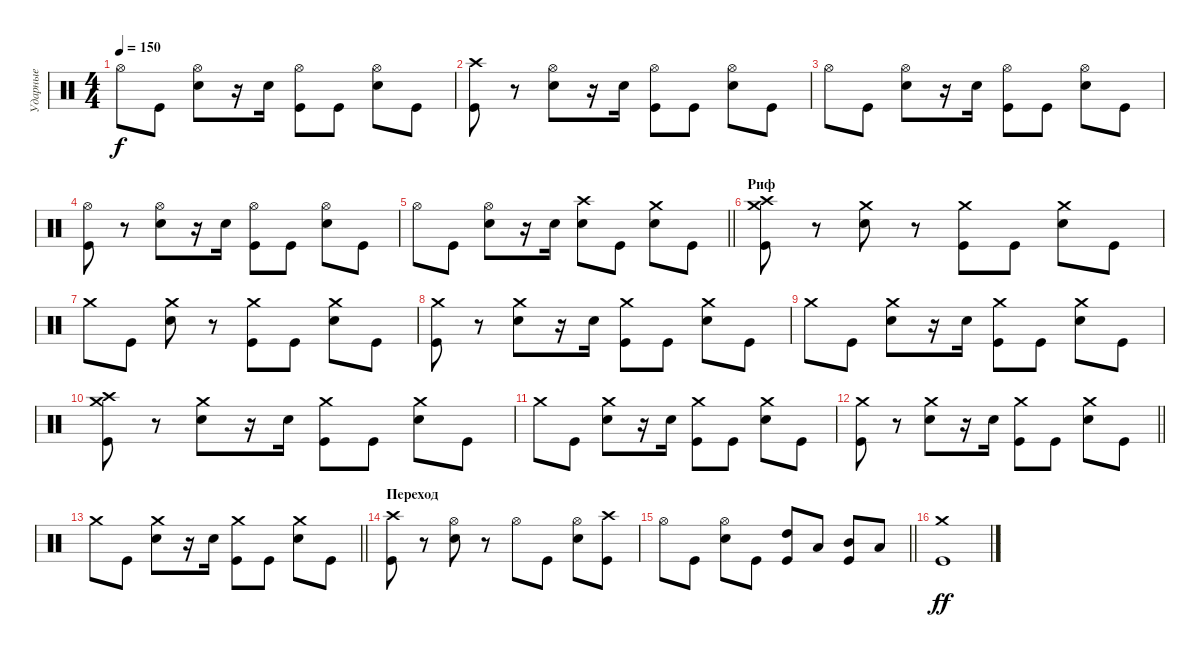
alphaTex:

\track ("Ударные" "Ударные") {instrument percussion}
\staff {score}
\articulation defaults
\ts (4 4)
\tempo 150
\clef neutral
\ks c "Hi-Hat (open)".8{dy f} "Kick (hit)".8
("Snare (hit) 2" "Hi-Hat (open)").8 r.16 "Snare (hit) 2".16 ("Kick (hit)" "Hi-Hat (open)").8 "Kick (hit)".8 ("Snare (hit) 2" "Hi-Hat (open)").8 "Kick (hit)".8 |
("Kick (hit)" "Crash high (hit)").8 r.8 ("Snare (hit) 2" "Hi-Hat (open)").8 r.16 "Snare (hit) 2".16 ("Kick (hit)" "Hi-Hat (open)").8 "Kick (hit)".8 ("Snare (hit) 2" "Hi-Hat (open)").8 "Kick (hit)".8 |
"Hi-Hat (open)".8 "Kick (hit)".8 ("Snare (hit) 2" "Hi-Hat (open)").8 r.16 "Snare (hit) 2".16 ("Kick (hit)" "Hi-Hat (open)").8 "Kick (hit)".8 ("Snare (hit) 2" "Hi-Hat (open)").8 "Kick (hit)".8 |
("Kick (hit)" "Hi-Hat (open)").8 r.8 ("Snare (hit) 2" "Hi-Hat (open)").8 r.16 "Snare (hit) 2".16 ("Kick (hit)" "Hi-Hat (open)").8 "Kick (hit)".8 ("Snare (hit) 2" "Hi-Hat (open)").8 "Kick (hit)".8 |
\barLineRight lightlight "Hi-Hat (open)".8 "Kick (hit)".8
("Snare (hit) 2" "Hi-Hat (open)").8 r.16 "Snare (hit) 2".16 ("Snare (hit) 2" "Crash high (hit)").8 "Kick (hit)".8 ("Snare (hit) 2" "Crash medium (hit)").8 "Kick (hit)".8 |
\section ("" "Риф")
("Kick (hit)" "Crash high (hit)" "Crash medium (hit)").8 r.8 ("Snare (hit) 2" "Crash medium (hit)").8 r.8 ("Kick (hit)" "Crash medium (hit)").8 "Kick (hit)".8 ("Snare (hit) 2" "Crash medium (hit)").8 "Kick (hit)".8 |
"Crash medium (hit)".8 "Kick (hit)".8 ("Snare (hit) 2" "Crash medium (hit)").8 r.8 ("Kick (hit)" "Crash medium (hit)").8 "Kick (hit)".8 ("Snare (hit) 2" "Crash medium (hit)").8 "Kick (hit)".8 |
("Kick (hit)" "Crash medium (hit)").8 r.8 ("Snare (hit) 2" "Crash medium (hit)").8 r.16 "Snare (hit) 2".16 ("Kick (hit)" "Crash medium (hit)").8 "Kick (hit)".8 ("Snare (hit) 2" "Crash medium (hit)").8 "Kick (hit)".8 |
"Crash medium (hit)".8 "Kick (hit)".8 ("Snare (hit) 2" "Crash medium (hit)").8 r.16 "Snare (hit) 2".16 ("Kick (hit)" "Crash medium (hit)").8 "Kick (hit)".8 ("Snare (hit) 2" "Crash medium (hit)").8 "Kick (hit)".8 |
("Kick (hit)" "Crash medium (hit)" "Crash high (hit)").8 r.8 ("Snare (hit) 2" "Crash medium (hit)").8 r.16 "Snare (hit) 2".16 ("Kick (hit)" "Crash medium (hit)").8 "Kick (hit)".8 ("Snare (hit) 2" "Crash medium (hit)").8 "Kick (hit)".8 |
"Crash medium (hit)".8 "Kick (hit)".8 ("Snare (hit) 2" "Crash medium (hit)").8 r.16 "Snare (hit) 2".16 ("Kick (hit)" "Crash medium (hit)").8 "Kick (hit)".8 ("Snare (hit) 2" "Crash medium (hit)").8 "Kick (hit)".8 |
\barLineRight lightlight
("Kick (hit)" "Crash medium (hit)").8 r.8 ("Snare (hit) 2" "Crash medium (hit)").8 r.16 "Snare (hit) 2".16 ("Kick (hit)" "Crash medium (hit)").8 "Kick (hit)".8 ("Snare (hit) 2" "Crash medium (hit)").8 "Kick (hit)".8 |
\barLineRight lightlight "Crash medium (hit)".8 "Kick (hit)".8
("Snare (hit) 2" "Crash medium (hit)").8 r.16 "Snare (hit) 2".16 ("Kick (hit)" "Crash medium (hit)").8 "Kick (hit)".8 ("Snare (hit) 2" "Crash medium (hit)").8 "Kick (hit)".8 |
\section ("" "Переход")
("Kick (hit)" "Crash high (hit)").8 r.8 ("Snare (hit) 2" "Hi-Hat (open)").8 r.8 "Hi-Hat (open)".8 "Kick (hit)".8 ("Snare (hit) 2" "Hi-Hat (open)").8 ("Kick (hit)" "Crash high (hit)").8 |
\barLineRight lightlight "Hi-Hat (open)".8 "Kick (hit)".8
("Snare (hit) 2" "Hi-Hat (open)").8 "Kick (hit)".8 ("High Tom (hit)" "Kick (hit)").8 "Low Tom (hit)".8 ("Mid Tom (hit)" "Kick (hit)").8 "Low Tom (hit)".8 |
("Crash medium (hit)" "Kick (hit)").1{dy ff}
